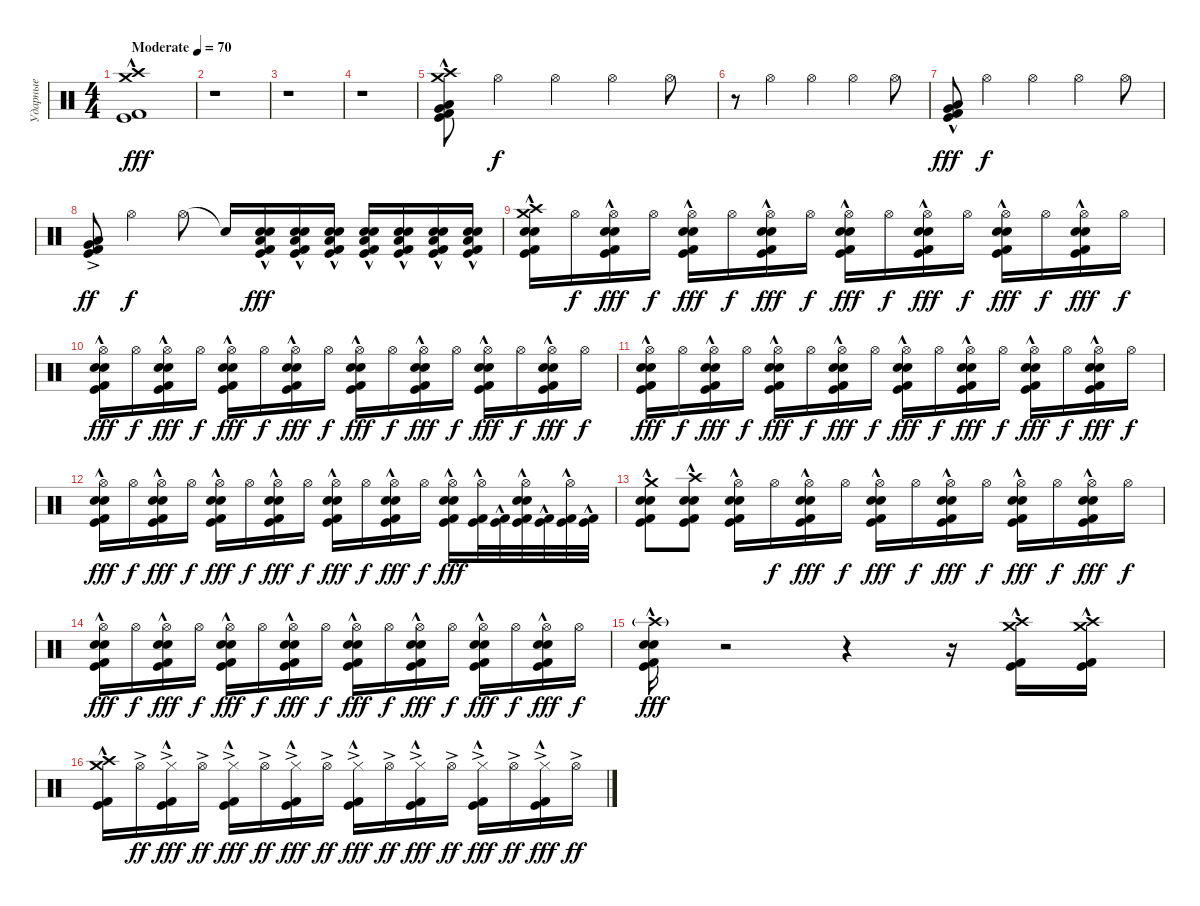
\track ("Ударные" "Ударные") {instrument percussion}
\staff {score}
\articulation defaults
\ts (4 4)
\tempo (70 "Moderate")
\clef neutral
\ks c
("Crash high (hit)"{hac} "Crash medium (hit)"{hac} "Kick (hit)"{hac} "Kick (hit) 2"{hac}).1{dy fff} |
r.1 |
r.1 |
r.1 |
("Crash high (hit)" "Kick (hit) 2"{hac} "Kick (hit)"{hac} "Low Floor Tom (hit)"{hac} "Very Low Tom (hit)"{hac} "Crash medium (hit)").8 "Hi-Hat (open)".4{dy f} "Hi-Hat (open)".4 "Hi-Hat (open)".4 "Hi-Hat (open)".8 |
r.8 "Hi-Hat (open)".4 "Hi-Hat (open)".4 "Hi-Hat (open)".4 "Hi-Hat (open)".8 |
("Kick (hit) 2"{hac} "Kick (hit)"{hac} "Low Floor Tom (hit)"{hac} "Very Low Tom (hit)"{hac}).8{dy fff} "Hi-Hat (open)".4{dy f} "Hi-Hat (open)".4 "Hi-Hat (open)".4 "Hi-Hat (open)".8 |
("Kick (hit) 2"{ac} "Kick (hit)"{ac} "Low Floor Tom (hit)"{ac} "Very Low Tom (hit)"{ac}).8{dy ff} "Hi-Hat (open)".4{dy f} "Hi-Hat (open)".8 "Snare (hit)"{t}.16 ("Snare (hit) 2"{hac} "Kick (hit)"{hac} "Electric Snare (hit)"{hac} "Kick (hit) 2"{hac} "Low Floor Tom (hit)"{hac}).16{dy fff} ("Snare (hit) 2"{hac} "Kick (hit)"{hac} "Electric Snare (hit)"{hac} "Kick (hit) 2"{hac} "Low Floor Tom (hit)"{hac}).16 ("Snare (hit) 2"{hac} "Kick (hit)"{hac} "Electric Snare (hit)"{hac} "Kick (hit) 2"{hac} "Low Floor Tom (hit)"{hac}).16 ("Snare (hit) 2"{hac} "Kick (hit)"{hac} "Electric Snare (hit)"{hac} "Kick (hit) 2"{hac} "Low Floor Tom (hit)"{hac}).16 ("Snare (hit) 2"{hac} "Kick (hit)"{hac} "Electric Snare (hit)"{hac} "Kick (hit) 2"{hac} "Low Floor Tom (hit)"{hac}).16 ("Snare (hit) 2"{hac} "Kick (hit)"{hac} "Electric Snare (hit)"{hac} "Kick (hit) 2"{hac} "Low Floor Tom (hit)"{hac}).16 ("Snare (hit) 2"{hac} "Kick (hit)"{hac} "Electric Snare (hit)"{hac} "Kick (hit) 2"{hac} "Low Floor Tom (hit)"{hac}).16 |
("Crash high (hit)"{hac} "Kick (hit) 2"{hac} "Snare (hit) 2"{hac} "Kick (hit)"{hac} "Electric Snare (hit)"{hac} "Crash medium (hit)"{hac}).16 "Hi-Hat (open)".16{dy f} ("Hi-Hat (open)" "Kick (hit) 2"{hac} "Snare (hit) 2"{hac} "Kick (hit)"{hac} "Electric Snare (hit)"{hac}).16{dy fff} "Hi-Hat (open)".16{dy f} ("Hi-Hat (open)" "Kick (hit) 2"{hac} "Snare (hit) 2"{hac} "Kick (hit)"{hac} "Electric Snare (hit)"{hac}).16{dy fff} "Hi-Hat (open)".16{dy f} ("Hi-Hat (open)" "Kick (hit) 2"{hac} "Snare (hit) 2"{hac} "Kick (hit)"{hac} "Electric Snare (hit)"{hac}).16{dy fff} "Hi-Hat (open)".16{dy f} ("Hi-Hat (open)" "Kick (hit) 2"{hac} "Snare (hit) 2"{hac} "Kick (hit)"{hac} "Electric Snare (hit)"{hac}).16{dy fff} "Hi-Hat (open)".16{dy f} ("Hi-Hat (open)" "Kick (hit) 2"{hac} "Snare (hit) 2"{hac} "Kick (hit)"{hac} "Electric Snare (hit)"{hac}).16{dy fff} "Hi-Hat (open)".16{dy f} ("Hi-Hat (open)" "Kick (hit) 2"{hac} "Snare (hit) 2"{hac} "Kick (hit)"{hac} "Electric Snare (hit)"{hac}).16{dy fff} "Hi-Hat (open)".16{dy f} ("Hi-Hat (open)" "Kick (hit) 2"{hac} "Snare (hit) 2"{hac} "Kick (hit)"{hac} "Electric Snare (hit)"{hac}).16{dy fff} "Hi-Hat (open)".16{dy f} |
("Hi-Hat (open)" "Kick (hit) 2"{hac} "Snare (hit) 2"{hac} "Kick (hit)"{hac} "Electric Snare (hit)"{hac}).16{dy fff} "Hi-Hat (open)".16{dy f} ("Hi-Hat (open)" "Kick (hit) 2"{hac} "Snare (hit) 2"{hac} "Kick (hit)"{hac} "Electric Snare (hit)"{hac}).16{dy fff} "Hi-Hat (open)".16{dy f} ("Hi-Hat (open)" "Kick (hit) 2"{hac} "Snare (hit) 2"{hac} "Kick (hit)"{hac} "Electric Snare (hit)"{hac}).16{dy fff} "Hi-Hat (open)".16{dy f} ("Hi-Hat (open)" "Kick (hit) 2"{hac} "Snare (hit) 2"{hac} "Kick (hit)"{hac} "Electric Snare (hit)"{hac}).16{dy fff} "Hi-Hat (open)".16{dy f} ("Hi-Hat (open)" "Kick (hit) 2"{hac} "Snare (hit) 2"{hac} "Kick (hit)"{hac} "Electric Snare (hit)"{hac}).16{dy fff} "Hi-Hat (open)".16{dy f} ("Hi-Hat (open)" "Kick (hit) 2"{hac} "Snare (hit) 2"{hac} "Kick (hit)"{hac} "Electric Snare (hit)"{hac}).16{dy fff} "Hi-Hat (open)".16{dy f} ("Hi-Hat (open)" "Kick (hit) 2"{hac} "Snare (hit) 2"{hac} "Kick (hit)"{hac} "Electric Snare (hit)"{hac}).16{dy fff} "Hi-Hat (open)".16{dy f} ("Hi-Hat (open)" "Kick (hit) 2"{hac} "Snare (hit) 2"{hac} "Kick (hit)"{hac} "Electric Snare (hit)"{hac}).16{dy fff} "Hi-Hat (open)".16{dy f} |
("Hi-Hat (open)" "Kick (hit) 2"{hac} "Snare (hit) 2"{hac} "Kick (hit)"{hac} "Electric Snare (hit)"{hac}).16{dy fff} "Hi-Hat (open)".16{dy f} ("Hi-Hat (open)" "Kick (hit) 2"{hac} "Snare (hit) 2"{hac} "Kick (hit)"{hac} "Electric Snare (hit)"{hac}).16{dy fff} "Hi-Hat (open)".16{dy f} ("Hi-Hat (open)" "Kick (hit) 2"{hac} "Snare (hit) 2"{hac} "Kick (hit)"{hac} "Electric Snare (hit)"{hac}).16{dy fff} "Hi-Hat (open)".16{dy f} ("Hi-Hat (open)" "Kick (hit) 2"{hac} "Snare (hit) 2"{hac} "Kick (hit)"{hac} "Electric Snare (hit)"{hac}).16{dy fff} "Hi-Hat (open)".16{dy f} ("Hi-Hat (open)" "Kick (hit) 2"{hac} "Snare (hit) 2"{hac} "Kick (hit)"{hac} "Electric Snare (hit)"{hac}).16{dy fff} "Hi-Hat (open)".16{dy f} ("Hi-Hat (open)" "Kick (hit) 2"{hac} "Snare (hit) 2"{hac} "Kick (hit)"{hac} "Electric Snare (hit)"{hac}).16{dy fff} "Hi-Hat (open)".16{dy f} ("Hi-Hat (open)" "Kick (hit) 2"{hac} "Snare (hit) 2"{hac} "Kick (hit)"{hac} "Electric Snare (hit)"{hac}).16{dy fff} "Hi-Hat (open)".16{dy f} ("Hi-Hat (open)" "Kick (hit) 2"{hac} "Snare (hit) 2"{hac} "Kick (hit)"{hac} "Electric Snare (hit)"{hac}).16{dy fff} "Hi-Hat (open)".16{dy f} |
("Hi-Hat (open)" "Kick (hit) 2"{hac} "Snare (hit) 2"{hac} "Kick (hit)"{hac} "Electric Snare (hit)"{hac}).16{dy fff} "Hi-Hat (open)".16{dy f} ("Hi-Hat (open)" "Kick (hit) 2"{hac} "Snare (hit) 2"{hac} "Kick (hit)"{hac} "Electric Snare (hit)"{hac}).16{dy fff} "Hi-Hat (open)".16{dy f} ("Hi-Hat (open)" "Kick (hit) 2"{hac} "Snare (hit) 2"{hac} "Kick (hit)"{hac} "Electric Snare (hit)"{hac}).16{dy fff} "Hi-Hat (open)".16{dy f} ("Hi-Hat (open)" "Kick (hit) 2"{hac} "Snare (hit) 2"{hac} "Kick (hit)"{hac} "Electric Snare (hit)"{hac}).16{dy fff} "Hi-Hat (open)".16{dy f} ("Hi-Hat (open)" "Kick (hit) 2"{hac} "Snare (hit) 2"{hac} "Kick (hit)"{hac} "Electric Snare (hit)"{hac}).16{dy fff} "Hi-Hat (open)".16{dy f} ("Hi-Hat (open)" "Kick (hit) 2"{hac} "Snare (hit) 2"{hac} "Kick (hit)"{hac} "Electric Snare (hit)"{hac}).16{dy fff} "Hi-Hat (open)".16{dy f} ("Hi-Hat (open)" "Kick (hit) 2"{hac} "Snare (hit) 2"{hac} "Kick (hit)"{hac} "Electric Snare (hit)"{hac}).16{dy fff} ("Hi-Hat (open)" "Kick (hit) 2"{hac} "Kick (hit)"{hac}).32 ("Kick (hit) 2"{hac} "Kick (hit)"{hac}).32 ("Hi-Hat (open)" "Kick (hit) 2"{hac} "Snare (hit) 2"{hac} "Kick (hit)"{hac} "Electric Snare (hit)"{hac}).32 ("Kick (hit) 2"{hac} "Kick (hit)"{hac}).32 ("Hi-Hat (open)" "Kick (hit) 2"{hac} "Kick (hit)"{hac}).32 ("Kick (hit) 2"{hac} "Kick (hit)"{hac}).32 |
("Crash medium (hit)"{hac} "Kick (hit) 2"{hac} "Snare (hit) 2"{hac} "Kick (hit)"{hac} "Electric Snare (hit)"{hac}).8 ("Crash high (hit)"{hac} "Kick (hit) 2"{hac} "Snare (hit) 2"{hac} "Kick (hit)"{hac} "Electric Snare (hit)"{hac}).8 ("Hi-Hat (open)" "Kick (hit) 2"{hac} "Snare (hit) 2"{hac} "Kick (hit)"{hac} "Electric Snare (hit)"{hac}).16 "Hi-Hat (open)".16{dy f} ("Hi-Hat (open)" "Kick (hit) 2"{hac} "Snare (hit) 2"{hac} "Kick (hit)"{hac} "Electric Snare (hit)"{hac}).16{dy fff} "Hi-Hat (open)".16{dy f} ("Hi-Hat (open)" "Kick (hit) 2"{hac} "Snare (hit) 2"{hac} "Kick (hit)"{hac} "Electric Snare (hit)"{hac}).16{dy fff} "Hi-Hat (open)".16{dy f} ("Hi-Hat (open)" "Kick (hit) 2"{hac} "Snare (hit) 2"{hac} "Kick (hit)"{hac} "Electric Snare (hit)"{hac}).16{dy fff} "Hi-Hat (open)".16{dy f} ("Hi-Hat (open)" "Kick (hit) 2"{hac} "Snare (hit) 2"{hac} "Kick (hit)"{hac} "Electric Snare (hit)"{hac}).16{dy fff} "Hi-Hat (open)".16{dy f} ("Hi-Hat (open)" "Kick (hit) 2"{hac} "Snare (hit) 2"{hac} "Kick (hit)"{hac} "Electric Snare (hit)"{hac}).16{dy fff} "Hi-Hat (open)".16{dy f} |
("Hi-Hat (open)" "Kick (hit) 2"{hac} "Snare (hit) 2"{hac} "Kick (hit)"{hac} "Electric Snare (hit)"{hac}).16{dy fff} "Hi-Hat (open)".16{dy f} ("Hi-Hat (open)" "Kick (hit) 2"{hac} "Snare (hit) 2"{hac} "Kick (hit)"{hac} "Electric Snare (hit)"{hac}).16{dy fff} "Hi-Hat (open)".16{dy f} ("Hi-Hat (open)" "Kick (hit) 2"{hac} "Snare (hit) 2"{hac} "Kick (hit)"{hac} "Electric Snare (hit)"{hac}).16{dy fff} "Hi-Hat (open)".16{dy f} ("Hi-Hat (open)" "Kick (hit) 2"{hac} "Snare (hit) 2"{hac} "Kick (hit)"{hac} "Electric Snare (hit)"{hac}).16{dy fff} "Hi-Hat (open)".16{dy f} ("Hi-Hat (open)" "Kick (hit) 2"{hac} "Snare (hit) 2"{hac} "Kick (hit)"{hac} "Electric Snare (hit)"{hac}).16{dy fff} "Hi-Hat (open)".16{dy f} ("Hi-Hat (open)" "Kick (hit) 2"{hac} "Snare (hit) 2"{hac} "Kick (hit)"{hac} "Electric Snare (hit)"{hac}).16{dy fff} "Hi-Hat (open)".16{dy f} ("Hi-Hat (open)" "Kick (hit) 2"{hac} "Snare (hit) 2"{hac} "Kick (hit)"{hac} "Electric Snare (hit)"{hac}).16{dy fff} "Hi-Hat (open)".16{dy f} ("Hi-Hat (open)" "Kick (hit) 2"{hac} "Snare (hit) 2"{hac} "Kick (hit)"{hac} "Electric Snare (hit)"{hac}).16{dy fff} "Hi-Hat (open)".16{dy f} |
("Crash high (hit)"{g} "Snare (hit) 2"{hac} "Electric Snare (hit)"{hac} "Kick (hit)"{hac} "Kick (hit) 2"{hac}).16{dy fff} r.2 r.4 r.16 ("Crash medium (hit)"{hac} "Kick (hit)"{hac} "Kick (hit) 2"{hac} "Crash high (hit)"{hac}).16 ("Crash medium (hit)"{hac} "Kick (hit)"{hac} "Kick (hit) 2"{hac} "Crash high (hit)"{hac}).16 |
("Crash high (hit)"{hac} "Kick (hit) 2"{hac} "Kick (hit)"{hac} "Crash medium (hit)"{hac}).16 "Hi-Hat (open)"{ac}.16{dy ff} ("Hi-Hat (closed)"{ac} "Kick (hit) 2"{hac} "Kick (hit)"{hac}).16{dy fff} "Hi-Hat (open)"{ac}.16{dy ff} ("Hi-Hat (closed)"{ac} "Kick (hit) 2"{hac} "Kick (hit)"{hac}).16{dy fff} "Hi-Hat (open)"{ac}.16{dy ff} ("Hi-Hat (closed)"{ac} "Kick (hit) 2"{hac} "Kick (hit)"{hac}).16{dy fff} "Hi-Hat (open)"{ac}.16{dy ff} ("Hi-Hat (closed)"{ac} "Kick (hit) 2"{hac} "Kick (hit)"{hac}).16{dy fff} "Hi-Hat (open)"{ac}.16{dy ff} ("Hi-Hat (closed)"{ac} "Kick (hit) 2"{hac} "Kick (hit)"{hac}).16{dy fff} "Hi-Hat (open)"{ac}.16{dy ff} ("Hi-Hat (closed)"{ac} "Kick (hit) 2"{hac} "Kick (hit)"{hac}).16{dy fff} "Hi-Hat (open)"{ac}.16{dy ff} ("Hi-Hat (closed)"{ac} "Kick (hit) 2"{hac} "Kick (hit)"{hac}).16{dy fff} "Hi-Hat (open)"{ac}.16{dy ff}
